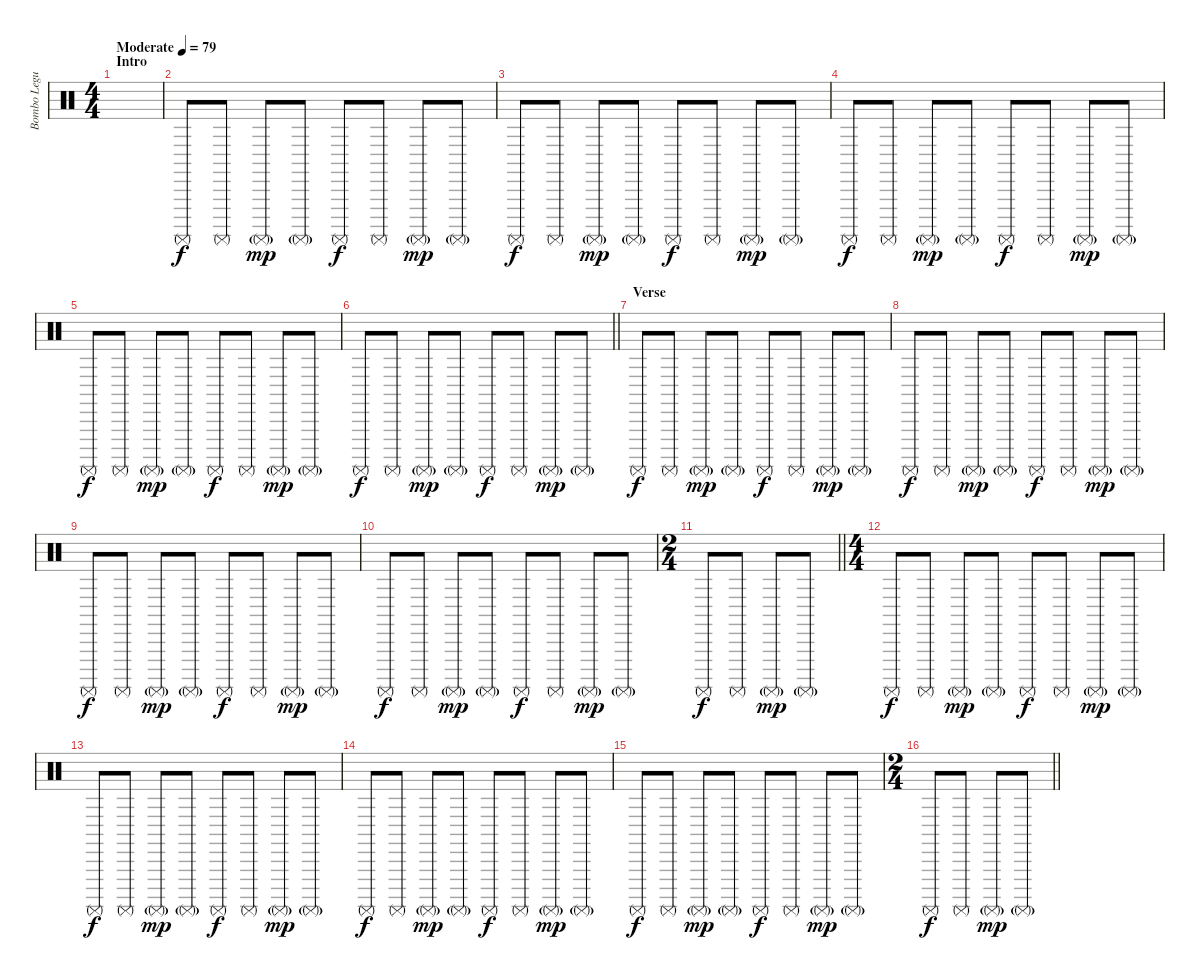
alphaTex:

\track ("Bombo Leguero" "Bombo Legu") {instrument percussion}
\staff {score}
\articulation defaults
\ts (4 4)
\section ("" "Intro")
\tempo (79 "Moderate")
\clef neutral
\ks c
|
"Surdo (mute)".8 "Surdo (mute)".8 "Surdo (mute)"{g}.8{dy mp} "Surdo (mute)"{g}.8 "Surdo (mute)".8{dy f} "Surdo (mute)".8 "Surdo (mute)"{g}.8{dy mp} "Surdo (mute)"{g}.8 |
"Surdo (mute)".8{dy f} "Surdo (mute)".8 "Surdo (mute)"{g}.8{dy mp} "Surdo (mute)"{g}.8 "Surdo (mute)".8{dy f} "Surdo (mute)".8 "Surdo (mute)"{g}.8{dy mp} "Surdo (mute)"{g}.8 |
"Surdo (mute)".8{dy f} "Surdo (mute)".8 "Surdo (mute)"{g}.8{dy mp} "Surdo (mute)"{g}.8 "Surdo (mute)".8{dy f} "Surdo (mute)".8 "Surdo (mute)"{g}.8{dy mp} "Surdo (mute)"{g}.8 |
"Surdo (mute)".8{dy f} "Surdo (mute)".8 "Surdo (mute)"{g}.8{dy mp} "Surdo (mute)"{g}.8 "Surdo (mute)".8{dy f} "Surdo (mute)".8 "Surdo (mute)"{g}.8{dy mp} "Surdo (mute)"{g}.8 |
\barLineRight lightlight "Surdo (mute)".8{dy f} "Surdo (mute)".8 "Surdo (mute)"{g}.8{dy mp} "Surdo (mute)"{g}.8 "Surdo (mute)".8{dy f} "Surdo (mute)".8 "Surdo (mute)"{g}.8{dy mp} "Surdo (mute)"{g}.8
|
\section ("" "Verse")
"Surdo (mute)".8{dy f} "Surdo (mute)".8 "Surdo (mute)"{g}.8{dy mp} "Surdo (mute)"{g}.8 "Surdo (mute)".8{dy f} "Surdo (mute)".8 "Surdo (mute)"{g}.8{dy mp} "Surdo (mute)"{g}.8 |
"Surdo (mute)".8{dy f} "Surdo (mute)".8 "Surdo (mute)"{g}.8{dy mp} "Surdo (mute)"{g}.8 "Surdo (mute)".8{dy f} "Surdo (mute)".8 "Surdo (mute)"{g}.8{dy mp} "Surdo (mute)"{g}.8 |
"Surdo (mute)".8{dy f} "Surdo (mute)".8 "Surdo (mute)"{g}.8{dy mp} "Surdo (mute)"{g}.8 "Surdo (mute)".8{dy f} "Surdo (mute)".8 "Surdo (mute)"{g}.8{dy mp} "Surdo (mute)"{g}.8 |
"Surdo (mute)".8{dy f} "Surdo (mute)".8 "Surdo (mute)"{g}.8{dy mp} "Surdo (mute)"{g}.8 "Surdo (mute)".8{dy f} "Surdo (mute)".8 "Surdo (mute)"{g}.8{dy mp} "Surdo (mute)"{g}.8 |
\ts (2 4)
\barLineRight lightlight "Surdo (mute)".8{dy f} "Surdo (mute)".8 "Surdo (mute)"{g}.8{dy mp} "Surdo (mute)"{g}.8
|
\ts (4 4)
\section ("" "")
"Surdo (mute)".8{dy f} "Surdo (mute)".8 "Surdo (mute)"{g}.8{dy mp} "Surdo (mute)"{g}.8 "Surdo (mute)".8{dy f} "Surdo (mute)".8 "Surdo (mute)"{g}.8{dy mp} "Surdo (mute)"{g}.8 |
"Surdo (mute)".8{dy f} "Surdo (mute)".8 "Surdo (mute)"{g}.8{dy mp} "Surdo (mute)"{g}.8 "Surdo (mute)".8{dy f} "Surdo (mute)".8 "Surdo (mute)"{g}.8{dy mp} "Surdo (mute)"{g}.8 |
"Surdo (mute)".8{dy f} "Surdo (mute)".8 "Surdo (mute)"{g}.8{dy mp} "Surdo (mute)"{g}.8 "Surdo (mute)".8{dy f} "Surdo (mute)".8 "Surdo (mute)"{g}.8{dy mp} "Surdo (mute)"{g}.8 |
"Surdo (mute)".8{dy f} "Surdo (mute)".8 "Surdo (mute)"{g}.8{dy mp} "Surdo (mute)"{g}.8 "Surdo (mute)".8{dy f} "Surdo (mute)".8 "Surdo (mute)"{g}.8{dy mp} "Surdo (mute)"{g}.8 |
\ts (2 4)
\barLineRight lightlight "Surdo (mute)".8{dy f} "Surdo (mute)".8 "Surdo (mute)"{g}.8{dy mp} "Surdo (mute)"{g}.8
